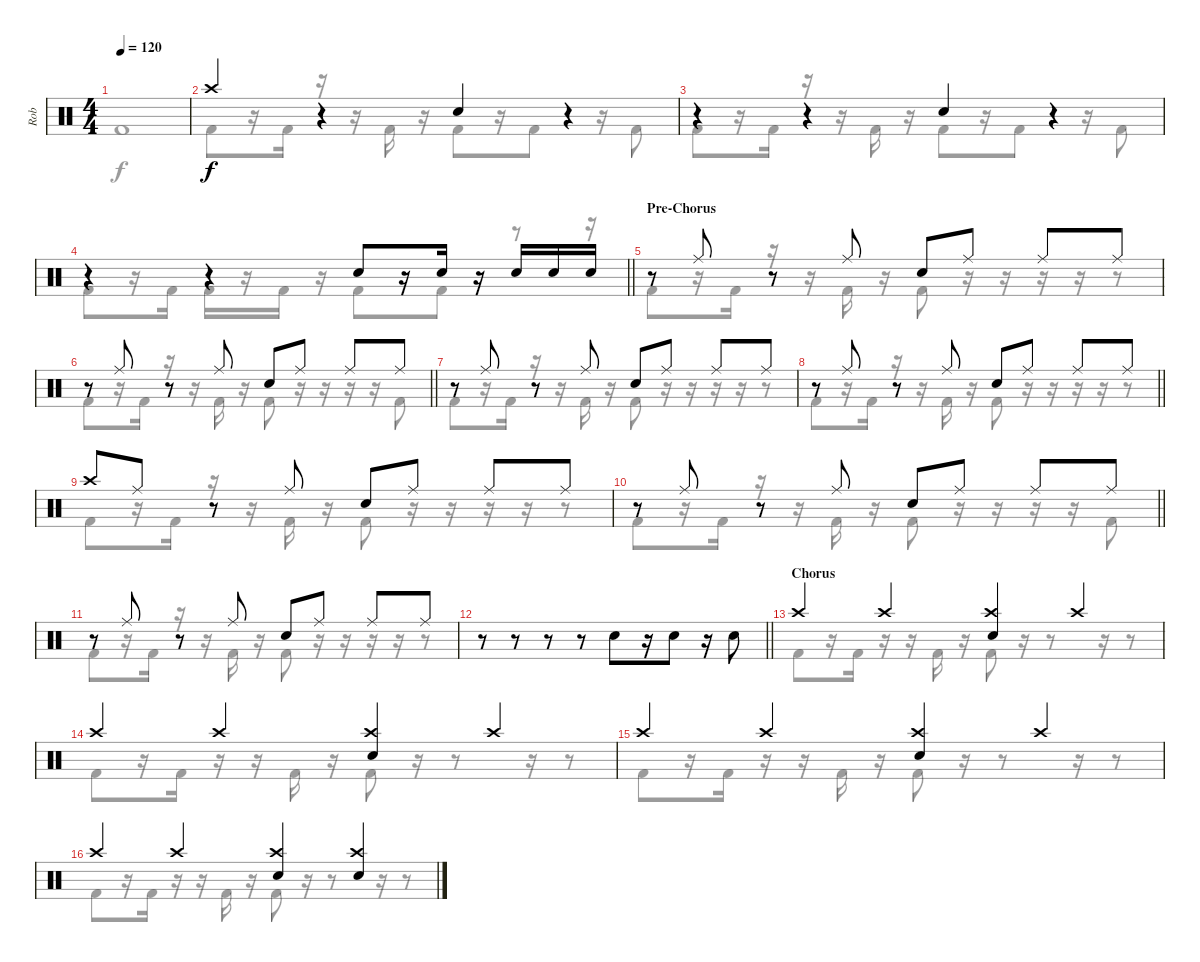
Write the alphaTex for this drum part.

\track ("Rob" "Rob") {instrument percussion}
\staff {score}
\articulation defaults
\voice
\ts (4 4)
\tempo 120
\clef neutral
\ks c
|
"Crash high (hit)".4 r.4 "Snare (hit) 2".4 r.4 |
r.4 r.4 "Snare (hit) 2".4 r.4 |
\barLineRight lightlight
r.4 r.4 "Snare (hit) 2".8 r.16 "Snare (hit) 2".16 r.16 "Snare (hit) 2".16 "Snare (hit) 2".16 "Snare (hit) 2".16 |
\section ("" "Pre-Chorus")
r.8 "Ride (middle)".8 r.8 "Ride (middle)".8 "Snare (hit) 2".8 "Ride (middle)".8 "Ride (middle)".8 "Ride (middle)".8 |
\barLineRight lightlight
r.8 "Ride (middle)".8 r.8 "Ride (middle)".8 "Snare (hit) 2".8 "Ride (middle)".8 "Ride (middle)".8 "Ride (middle)".8 |
r.8 "Ride (middle)".8 r.8 "Ride (middle)".8 "Snare (hit) 2".8 "Ride (middle)".8 "Ride (middle)".8 "Ride (middle)".8 |
\barLineRight lightlight
r.8 "Ride (middle)".8 r.8 "Ride (middle)".8 "Snare (hit) 2".8 "Ride (middle)".8 "Ride (middle)".8 "Ride (middle)".8 |
"Crash high (hit)".8 "Ride (middle)".8 r.8 "Ride (middle)".8 "Snare (hit) 2".8 "Ride (middle)".8 "Ride (middle)".8 "Ride (middle)".8 |
\barLineRight lightlight
r.8 "Ride (middle)".8 r.8 "Ride (middle)".8 "Snare (hit) 2".8 "Ride (middle)".8 "Ride (middle)".8 "Ride (middle)".8 |
r.8 "Ride (middle)".8 r.8 "Ride (middle)".8 "Snare (hit) 2".8 "Ride (middle)".8 "Ride (middle)".8 "Ride (middle)".8 |
\barLineRight lightlight
r.8 r.8 r.8 r.8 "Snare (hit) 2".8 r.16 "Snare (hit) 2".8 r.16 "Snare (hit) 2".8 |
\section ("" "Chorus")
"Crash high (hit)".4 "Crash high (hit)".4 ("Crash high (hit)" "Snare (hit) 2").4 "Crash high (hit)".4 |
"Crash high (hit)".4 "Crash high (hit)".4 ("Crash high (hit)" "Snare (hit) 2").4 "Crash high (hit)".4 |
"Crash high (hit)".4 "Crash high (hit)".4 ("Crash high (hit)" "Snare (hit) 2").4 "Crash high (hit)".4 |
"Crash high (hit)".4 "Crash high (hit)".4 ("Crash high (hit)" "Snare (hit) 2").4 ("Crash high (hit)" "Snare (hit) 2").4
\voice
\clef neutral
\ottava regular
\simile none
\ks c "Kick (hit) 2".1{dy f}
|
"Kick (hit) 2".8 r.16 "Kick (hit) 2".16 r.16 r.16 "Kick (hit) 2".16 r.16 "Kick (hit) 2".8 r.16 "Kick (hit) 2".8 r.16 "Kick (hit) 2".8 |
"Kick (hit) 2".8 r.16 "Kick (hit) 2".16 r.16 r.16 "Kick (hit) 2".16 r.16 "Kick (hit) 2".8 r.16 "Kick (hit) 2".8 r.16 "Kick (hit) 2".8 |
\barLineRight lightlight "Kick (hit) 2".8
r.16 "Kick (hit) 2".16 "Kick (hit) 2".16 r.16 "Kick (hit) 2".16 r.16 "Kick (hit) 2".8 r.16 "Kick (hit) 2".8 r.8 r.16 |
"Kick (hit) 2".8 r.16 "Kick (hit) 2".16 r.16 r.16 "Kick (hit) 2".16 r.16 "Kick (hit) 2".8 r.16 r.16 r.16 r.16 r.8 |
\barLineRight lightlight "Kick (hit) 2".8
r.16 "Kick (hit) 2".16 r.16 r.16 "Kick (hit) 2".16 r.16 "Kick (hit) 2".8 r.16 r.16 r.16 r.16 "Kick (hit) 2".8 |
"Kick (hit) 2".8 r.16 "Kick (hit) 2".16 r.16 r.16 "Kick (hit) 2".16 r.16 "Kick (hit) 2".8 r.16 r.16 r.16 r.16 r.8 |
\barLineRight lightlight "Kick (hit) 2".8
r.16 "Kick (hit) 2".16 r.16 r.16 "Kick (hit) 2".16 r.16 "Kick (hit) 2".8 r.16 r.16 r.16 r.16 r.8 |
"Kick (hit) 2".8 r.16 "Kick (hit) 2".16 r.16 r.16 "Kick (hit) 2".16 r.16 "Kick (hit) 2".8 r.16 r.16 r.16 r.16 r.8 |
\barLineRight lightlight "Kick (hit) 2".8
r.16 "Kick (hit) 2".16 r.16 r.16 "Kick (hit) 2".16 r.16 "Kick (hit) 2".8 r.16 r.16 r.16 r.16 "Kick (hit) 2".8 |
"Kick (hit) 2".8 r.16 "Kick (hit) 2".16 r.16 r.16 "Kick (hit) 2".16 r.16 "Kick (hit) 2".8 r.16 r.16 r.16 r.16 r.8 |
\barLineRight lightlight
|
"Kick (hit) 2".8 r.16 "Kick (hit) 2".16 r.16 r.16 "Kick (hit) 2".16 r.16 "Kick (hit) 2".8 r.16 r.8 r.16 r.8 |
"Kick (hit) 2".8 r.16 "Kick (hit) 2".16 r.16 r.16 "Kick (hit) 2".16 r.16 "Kick (hit) 2".8 r.16 r.8 r.16 r.8 |
"Kick (hit) 2".8 r.16 "Kick (hit) 2".16 r.16 r.16 "Kick (hit) 2".16 r.16 "Kick (hit) 2".8 r.16 r.8 r.16 r.8 |
"Kick (hit) 2".8 r.16 "Kick (hit) 2".16 r.16 r.16 "Kick (hit) 2".16 r.16 "Kick (hit) 2".8 r.16 r.8 r.16 r.8
